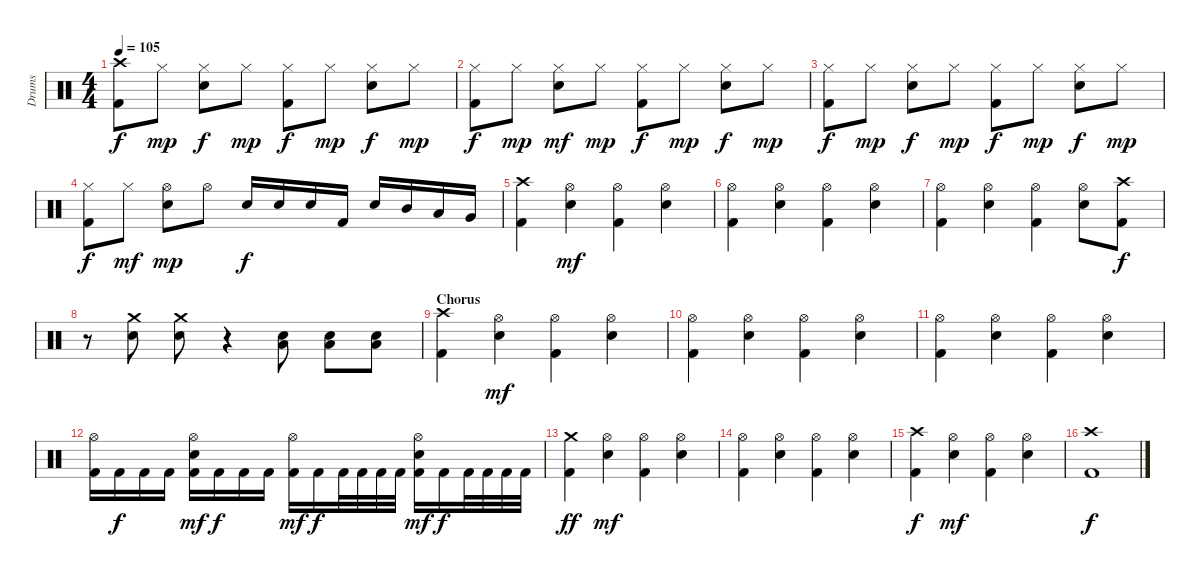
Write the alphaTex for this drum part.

\track ("Drums" "Drums") {instrument percussion}
\staff {score}
\articulation defaults
\ts (4 4)
\tempo 105
\clef neutral
\ks c
("Crash high (hit)" "Kick (hit) 2").8{dy f} "Hi-Hat (closed)".8{dy mp} ("Hi-Hat (closed)" "Electric Snare (hit)").8{dy f} "Hi-Hat (closed)".8{dy mp} ("Hi-Hat (closed)" "Kick (hit) 2").8{dy f} "Hi-Hat (closed)".8{dy mp} ("Hi-Hat (closed)" "Electric Snare (hit)").8{dy f} "Hi-Hat (closed)".8{dy mp} |
("Hi-Hat (closed)" "Kick (hit) 2").8{dy f} "Hi-Hat (closed)".8{dy mp} ("Hi-Hat (closed)" "Electric Snare (hit)").8{dy mf} "Hi-Hat (closed)".8{dy mp} ("Hi-Hat (closed)" "Kick (hit) 2").8{dy f} "Hi-Hat (closed)".8{dy mp} ("Hi-Hat (closed)" "Electric Snare (hit)").8{dy f} "Hi-Hat (closed)".8{dy mp} |
("Hi-Hat (closed)" "Kick (hit) 2").8{dy f} "Hi-Hat (closed)".8{dy mp} ("Hi-Hat (closed)" "Electric Snare (hit)").8{dy f} "Hi-Hat (closed)".8{dy mp} ("Hi-Hat (closed)" "Kick (hit) 2").8{dy f} "Hi-Hat (closed)".8{dy mp} ("Hi-Hat (closed)" "Electric Snare (hit)").8{dy f} "Hi-Hat (closed)".8{dy mp} |
("Hi-Hat (closed)" "Kick (hit) 2").8{dy f} "Hi-Hat (closed)".8{dy mf} ("Hi-Hat (open)" "Electric Snare (hit)").8{dy mp} "Hi-Hat (open)".8 "Electric Snare (hit)".16{dy f} "Electric Snare (hit)".16 "Electric Snare (hit)".16 "Kick (hit) 2".16 "Electric Snare (hit)".16 "Mid Tom (hit)".16 "Low Tom (hit)".16 "Very Low Tom (hit)".16 |
("Crash high (hit)" "Kick (hit) 2").4 ("Hi-Hat (open)" "Electric Snare (hit)").4{dy mf} ("Hi-Hat (open)" "Kick (hit) 2").4 ("Hi-Hat (open)" "Electric Snare (hit)").4 |
("Hi-Hat (open)" "Kick (hit) 2").4 ("Hi-Hat (open)" "Electric Snare (hit)").4 ("Hi-Hat (open)" "Kick (hit) 2").4 ("Hi-Hat (open)" "Electric Snare (hit)").4 |
("Hi-Hat (open)" "Kick (hit) 2").4 ("Hi-Hat (open)" "Electric Snare (hit)").4 ("Hi-Hat (open)" "Kick (hit) 2").4 ("Hi-Hat (open)" "Electric Snare (hit)").8 ("Crash high (hit)" "Kick (hit) 2").8{dy f} |
r.8 ("Crash medium (hit)" "Electric Snare (hit)").8 ("Crash medium (hit)" "Electric Snare (hit)").8 r.4 ("Low Floor Tom (hit)" "Electric Snare (hit)").8 ("Low Floor Tom (hit)" "Electric Snare (hit)").8 ("Low Floor Tom (hit)" "Electric Snare (hit)").8 |
\section ("" "Chorus")
("Crash high (hit)" "Kick (hit) 2").4 ("Hi-Hat (open)" "Electric Snare (hit)").4{dy mf} ("Hi-Hat (open)" "Kick (hit) 2").4 ("Hi-Hat (open)" "Electric Snare (hit)").4 |
("Hi-Hat (open)" "Kick (hit) 2").4 ("Hi-Hat (open)" "Electric Snare (hit)").4 ("Hi-Hat (open)" "Kick (hit) 2").4 ("Hi-Hat (open)" "Electric Snare (hit)").4 |
("Hi-Hat (open)" "Kick (hit) 2").4 ("Hi-Hat (open)" "Electric Snare (hit)").4 ("Hi-Hat (open)" "Kick (hit) 2").4 ("Hi-Hat (open)" "Electric Snare (hit)").4 |
("Hi-Hat (open)" "Kick (hit) 2").16 "Kick (hit) 2".16{dy f} "Kick (hit) 2".16 "Kick (hit) 2".16 ("Hi-Hat (open)" "Electric Snare (hit)" "Kick (hit) 2").16{dy mf} "Kick (hit) 2".16{dy f} "Kick (hit) 2".16 "Kick (hit) 2".16 ("Hi-Hat (open)" "Kick (hit) 2").16{dy mf} "Kick (hit) 2".16{dy f} "Kick (hit) 2".32 "Kick (hit) 2".32 "Kick (hit) 2".32 "Kick (hit) 2".32 ("Hi-Hat (open)" "Electric Snare (hit)" "Kick (hit) 2").16{dy mf} "Kick (hit) 2".16{dy f} "Kick (hit) 2".32 "Kick (hit) 2".32 "Kick (hit) 2".32 "Kick (hit) 2".32 |
("Crash medium (hit)" "Kick (hit) 2").4{dy ff} ("Hi-Hat (open)" "Electric Snare (hit)").4{dy mf} ("Hi-Hat (open)" "Kick (hit) 2").4 ("Hi-Hat (open)" "Electric Snare (hit)").4 |
("Hi-Hat (open)" "Kick (hit) 2").4 ("Hi-Hat (open)" "Electric Snare (hit)").4 ("Hi-Hat (open)" "Kick (hit) 2").4 ("Hi-Hat (open)" "Electric Snare (hit)").4 |
("Crash high (hit)" "Kick (hit) 2").4{dy f} ("Hi-Hat (open)" "Electric Snare (hit)").4{dy mf} ("Hi-Hat (open)" "Kick (hit) 2").4 ("Hi-Hat (open)" "Electric Snare (hit)").4 |
("Crash high (hit)" "Kick (hit) 2").1{dy f}
